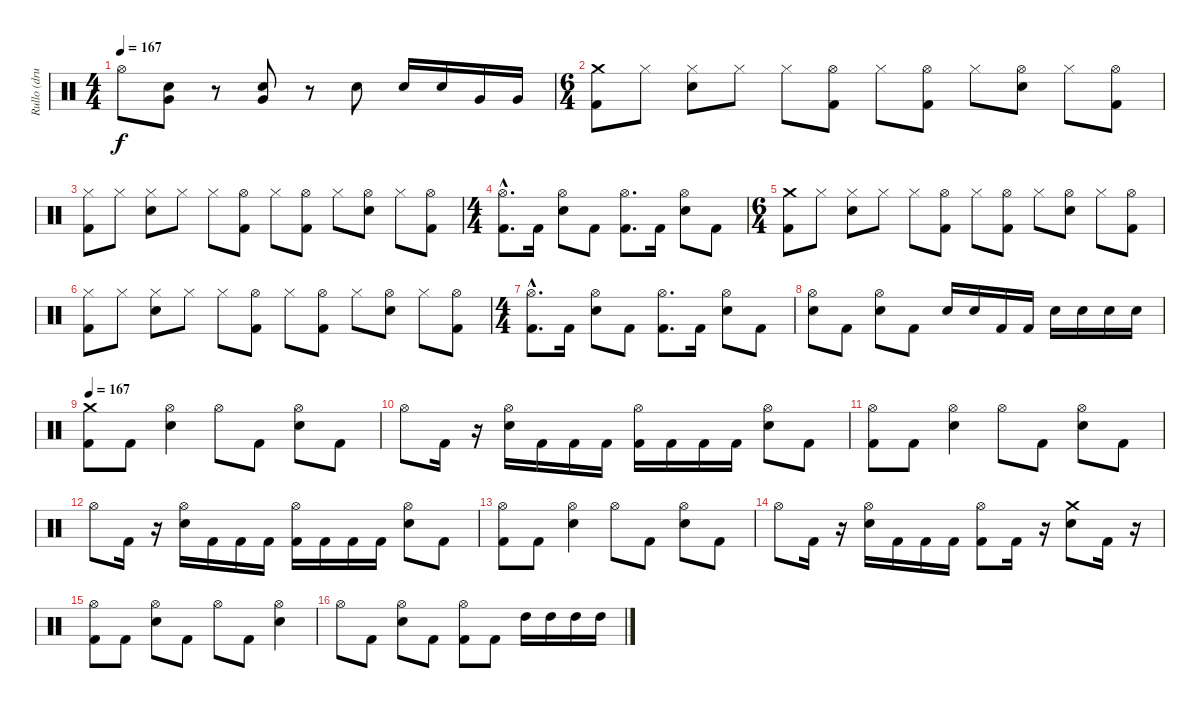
\track ("Rullo (drums)" "Rullo (dru") {instrument percussion}
\staff {score}
\articulation defaults
\ts (4 4)
\tempo 167
\clef neutral
\ks c "Hi-Hat (open)".8{dy f}
("Very Low Tom (hit)" "Electric Snare (hit)").8 r.8 ("Very Low Tom (hit)" "Electric Snare (hit)").8 r.8 "Electric Snare (hit)".8 "Electric Snare (hit)".16 "Electric Snare (hit)".16 "Very Low Tom (hit)".16 "Very Low Tom (hit)".16 |
\ts (6 4)
("Crash medium (hit)" "Kick (hit) 2").8 "Hi-Hat (closed)".8 ("Hi-Hat (closed)" "Electric Snare (hit)").8 "Hi-Hat (closed)".8 "Hi-Hat (closed)".8 ("Hi-Hat (open)" "Kick (hit) 2").8 "Hi-Hat (closed)".8 ("Hi-Hat (open)" "Kick (hit) 2").8 "Hi-Hat (closed)".8 ("Hi-Hat (open)" "Electric Snare (hit)").8 "Hi-Hat (closed)".8 ("Hi-Hat (open)" "Kick (hit) 2").8 |
("Hi-Hat (closed)" "Kick (hit) 2").8 "Hi-Hat (closed)".8 ("Hi-Hat (closed)" "Electric Snare (hit)").8 "Hi-Hat (closed)".8 "Hi-Hat (closed)".8 ("Hi-Hat (open)" "Kick (hit) 2").8 "Hi-Hat (closed)".8 ("Hi-Hat (open)" "Kick (hit) 2").8 "Hi-Hat (closed)".8 ("Hi-Hat (open)" "Electric Snare (hit)").8 "Hi-Hat (closed)".8 ("Hi-Hat (open)" "Kick (hit) 2").8 |
\ts (4 4)
("Hi-Hat (open)" "Kick (hit) 2"{hac}).8{d} "Kick (hit) 2".16 ("Hi-Hat (open)" "Electric Snare (hit)").8 "Kick (hit) 2".8 ("Hi-Hat (open)" "Kick (hit) 2").8{d} "Kick (hit) 2".16 ("Hi-Hat (open)" "Electric Snare (hit)").8 "Kick (hit) 2".8 |
\ts (6 4)
("Crash medium (hit)" "Kick (hit) 2").8 "Hi-Hat (closed)".8 ("Hi-Hat (closed)" "Electric Snare (hit)").8 "Hi-Hat (closed)".8 "Hi-Hat (closed)".8 ("Hi-Hat (open)" "Kick (hit) 2").8 "Hi-Hat (closed)".8 ("Hi-Hat (open)" "Kick (hit) 2").8 "Hi-Hat (closed)".8 ("Hi-Hat (open)" "Electric Snare (hit)").8 "Hi-Hat (closed)".8 ("Hi-Hat (open)" "Kick (hit) 2").8 |
("Hi-Hat (closed)" "Kick (hit) 2").8 "Hi-Hat (closed)".8 ("Hi-Hat (closed)" "Electric Snare (hit)").8 "Hi-Hat (closed)".8 "Hi-Hat (closed)".8 ("Hi-Hat (open)" "Kick (hit) 2").8 "Hi-Hat (closed)".8 ("Hi-Hat (open)" "Kick (hit) 2").8 "Hi-Hat (closed)".8 ("Hi-Hat (open)" "Electric Snare (hit)").8 "Hi-Hat (closed)".8 ("Hi-Hat (open)" "Kick (hit) 2").8 |
\ts (4 4)
("Hi-Hat (open)" "Kick (hit) 2"{hac}).8{d} "Kick (hit) 2".16 ("Hi-Hat (open)" "Electric Snare (hit)").8 "Kick (hit) 2".8 ("Hi-Hat (open)" "Kick (hit) 2").8{d} "Kick (hit) 2".16 ("Hi-Hat (open)" "Electric Snare (hit)").8 "Kick (hit) 2".8 |
("Hi-Hat (open)" "Electric Snare (hit)").8 "Kick (hit) 2".8 ("Hi-Hat (open)" "Electric Snare (hit)").8 "Kick (hit) 2".8 "Electric Snare (hit)".16 "Electric Snare (hit)".16 "Kick (hit) 2".16 "Kick (hit) 2".16 "Electric Snare (hit)".16 "Electric Snare (hit)".16 "Electric Snare (hit)".16 "Electric Snare (hit)".16 |
\tempo 167
("Crash medium (hit)" "Kick (hit) 2").8 "Kick (hit) 2".8 ("Hi-Hat (open)" "Electric Snare (hit)").4 "Hi-Hat (open)".8 "Kick (hit) 2".8 ("Hi-Hat (open)" "Electric Snare (hit)").8 "Kick (hit) 2".8 |
"Hi-Hat (open)".8 "Kick (hit) 2".16 r.16 ("Hi-Hat (open)" "Electric Snare (hit)").16 "Kick (hit) 2".16 "Kick (hit) 2".16 "Kick (hit) 2".16 ("Hi-Hat (open)" "Kick (hit) 2").16 "Kick (hit) 2".16 "Kick (hit) 2".16 "Kick (hit) 2".16 ("Hi-Hat (open)" "Electric Snare (hit)").8 "Kick (hit) 2".8 |
("Hi-Hat (open)" "Kick (hit) 2").8 "Kick (hit) 2".8 ("Hi-Hat (open)" "Electric Snare (hit)").4 "Hi-Hat (open)".8 "Kick (hit) 2".8 ("Hi-Hat (open)" "Electric Snare (hit)").8 "Kick (hit) 2".8 |
"Hi-Hat (open)".8 "Kick (hit) 2".16 r.16 ("Hi-Hat (open)" "Electric Snare (hit)").16 "Kick (hit) 2".16 "Kick (hit) 2".16 "Kick (hit) 2".16 ("Hi-Hat (open)" "Kick (hit) 2").16 "Kick (hit) 2".16 "Kick (hit) 2".16 "Kick (hit) 2".16 ("Hi-Hat (open)" "Electric Snare (hit)").8 "Kick (hit) 2".8 |
("Hi-Hat (open)" "Kick (hit) 2").8 "Kick (hit) 2".8 ("Hi-Hat (open)" "Electric Snare (hit)").4 "Hi-Hat (open)".8 "Kick (hit) 2".8 ("Hi-Hat (open)" "Electric Snare (hit)").8 "Kick (hit) 2".8 |
"Hi-Hat (open)".8 "Kick (hit) 2".16 r.16 ("Hi-Hat (open)" "Electric Snare (hit)").16 "Kick (hit) 2".16 "Kick (hit) 2".16 "Kick (hit) 2".16 ("Hi-Hat (open)" "Kick (hit) 2").8 "Kick (hit) 2".16 r.16 ("Crash medium (hit)" "Electric Snare (hit)").8 "Kick (hit) 2".16 r.16 |
("Hi-Hat (open)" "Kick (hit) 2").8 "Kick (hit) 2".8 ("Hi-Hat (open)" "Electric Snare (hit)").8 "Kick (hit) 2".8 "Hi-Hat (open)".8 "Kick (hit) 2".8 ("Hi-Hat (open)" "Electric Snare (hit)").4 |
"Hi-Hat (open)".8 "Kick (hit) 2".8 ("Hi-Hat (open)" "Electric Snare (hit)").8 "Kick (hit) 2".8 ("Hi-Hat (open)" "Kick (hit) 2").8 "Kick (hit) 2".8 "High Tom (hit)".16 "High Tom (hit)".16 "High Tom (hit)".16 "High Tom (hit)".16
